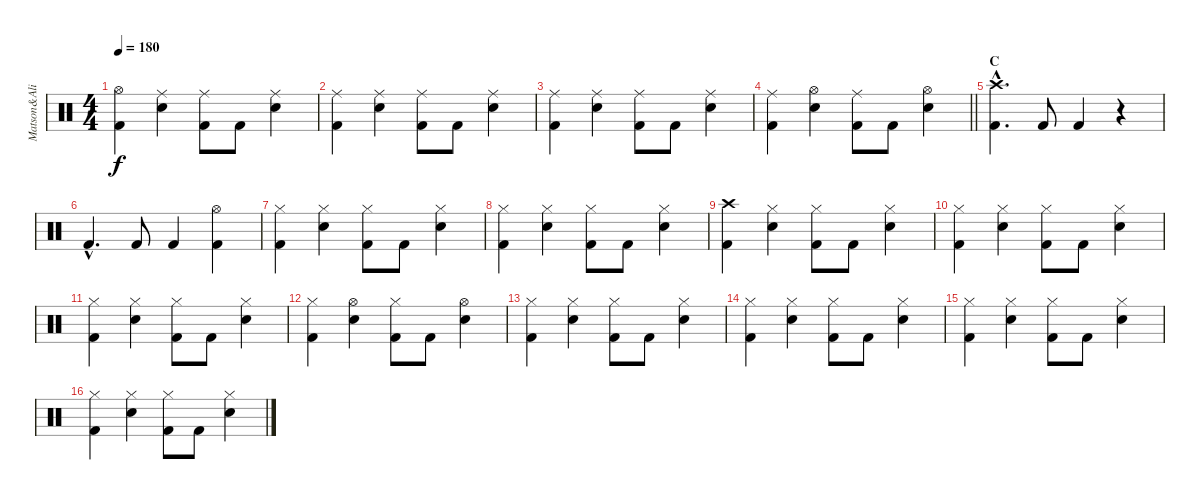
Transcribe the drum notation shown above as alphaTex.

\track ("Matson&Ali" "Matson&Ali") {instrument percussion}
\staff {score}
\articulation defaults
\ts (4 4)
\tempo 180
\clef neutral
\ks c
("Hi-Hat (open)" "Kick (hit) 2").4{dy f} ("Ride (middle)" "Snare (hit) 2").4 ("Ride (middle)" "Kick (hit) 2").8 "Kick (hit) 2".8 ("Ride (middle)" "Snare (hit) 2").4 |
("Ride (middle)" "Kick (hit) 2").4 ("Ride (middle)" "Snare (hit) 2").4 ("Ride (middle)" "Kick (hit) 2").8 "Kick (hit) 2".8 ("Ride (middle)" "Snare (hit) 2").4 |
("Ride (middle)" "Kick (hit) 2").4 ("Ride (middle)" "Snare (hit) 2").4 ("Ride (middle)" "Kick (hit) 2").8 "Kick (hit) 2".8 ("Ride (middle)" "Snare (hit) 2").4 |
\barLineRight lightlight
("Ride (middle)" "Kick (hit) 2").4 ("Hi-Hat (open)" "Snare (hit) 2").4 ("Ride (middle)" "Kick (hit) 2").8 "Kick (hit) 2".8 ("Hi-Hat (open)" "Snare (hit) 2").4 |
\section ("" "C")
("Crash high (hit)"{hac} "Kick (hit) 2").4{d} "Kick (hit) 2".8 "Kick (hit) 2".4 r.4 |
"Kick (hit) 2"{hac}.4{d} "Kick (hit) 2".8 "Kick (hit) 2".4 ("Hi-Hat (open)" "Kick (hit) 2").4 |
("Hi-Hat (closed)" "Kick (hit) 2").4 ("Hi-Hat (closed)" "Snare (hit) 2").4 ("Hi-Hat (closed)" "Kick (hit) 2").8 "Kick (hit) 2".8 ("Hi-Hat (closed)" "Snare (hit) 2").4 |
("Hi-Hat (closed)" "Kick (hit) 2").4 ("Hi-Hat (closed)" "Snare (hit) 2").4 ("Hi-Hat (closed)" "Kick (hit) 2").8 "Kick (hit) 2".8 ("Hi-Hat (closed)" "Snare (hit) 2").4 |
("Crash high (hit)" "Kick (hit) 2").4 ("Hi-Hat (closed)" "Snare (hit) 2").4 ("Hi-Hat (closed)" "Kick (hit) 2").8 "Kick (hit) 2".8 ("Hi-Hat (closed)" "Snare (hit) 2").4 |
("Hi-Hat (closed)" "Kick (hit) 2").4 ("Hi-Hat (closed)" "Snare (hit) 2").4 ("Hi-Hat (closed)" "Kick (hit) 2").8 "Kick (hit) 2".8 ("Hi-Hat (closed)" "Snare (hit) 2").4 |
("Hi-Hat (closed)" "Kick (hit) 2").4 ("Hi-Hat (closed)" "Snare (hit) 2").4 ("Hi-Hat (closed)" "Kick (hit) 2").8 "Kick (hit) 2".8 ("Hi-Hat (closed)" "Snare (hit) 2").4 |
("Hi-Hat (closed)" "Kick (hit) 2").4 ("Hi-Hat (open)" "Snare (hit) 2").4 ("Hi-Hat (closed)" "Kick (hit) 2").8 "Kick (hit) 2".8 ("Hi-Hat (open)" "Snare (hit) 2").4 |
("Hi-Hat (closed)" "Kick (hit) 2").4 ("Hi-Hat (closed)" "Snare (hit) 2").4 ("Hi-Hat (closed)" "Kick (hit) 2").8 "Kick (hit) 2".8 ("Hi-Hat (closed)" "Snare (hit) 2").4 |
("Hi-Hat (closed)" "Kick (hit) 2").4 ("Hi-Hat (closed)" "Snare (hit) 2").4 ("Hi-Hat (closed)" "Kick (hit) 2").8 "Kick (hit) 2".8 ("Hi-Hat (closed)" "Snare (hit) 2").4 |
("Hi-Hat (closed)" "Kick (hit) 2").4 ("Hi-Hat (closed)" "Snare (hit) 2").4 ("Hi-Hat (closed)" "Kick (hit) 2").8 "Kick (hit) 2".8 ("Hi-Hat (closed)" "Snare (hit) 2").4 |
("Hi-Hat (closed)" "Kick (hit) 2").4 ("Hi-Hat (closed)" "Snare (hit) 2").4 ("Hi-Hat (closed)" "Kick (hit) 2").8 "Kick (hit) 2".8 ("Hi-Hat (closed)" "Snare (hit) 2").4
